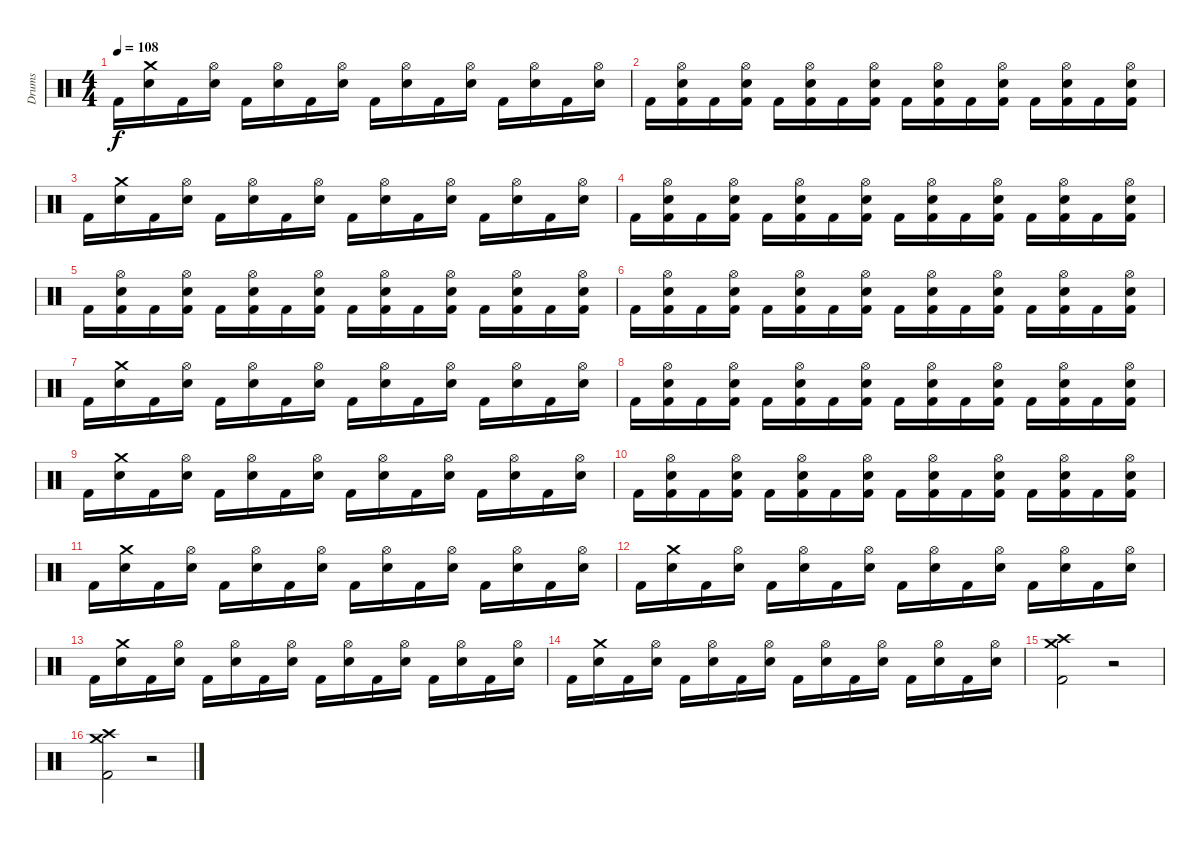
\track ("Drums" "Drums") {instrument percussion}
\staff {score}
\articulation defaults
\ts (4 4)
\tempo 108
\clef neutral
\ks c "Kick (hit) 2".16{dy f}
("Crash medium (hit)" "Snare (hit) 2").16 "Kick (hit) 2".16 ("Hi-Hat (open)" "Snare (hit) 2").16 "Kick (hit) 2".16 ("Hi-Hat (open)" "Snare (hit) 2").16 "Kick (hit) 2".16 ("Hi-Hat (open)" "Snare (hit) 2").16 "Kick (hit) 2".16 ("Hi-Hat (open)" "Snare (hit) 2").16 "Kick (hit) 2".16 ("Hi-Hat (open)" "Snare (hit) 2").16 "Kick (hit) 2".16 ("Hi-Hat (open)" "Snare (hit) 2").16 "Kick (hit) 2".16 ("Hi-Hat (open)" "Snare (hit) 2").16 |
"Kick (hit) 2".16 ("Hi-Hat (open)" "Snare (hit) 2" "Kick (hit) 2").16 "Kick (hit) 2".16 ("Hi-Hat (open)" "Snare (hit) 2" "Kick (hit) 2").16 "Kick (hit) 2".16 ("Hi-Hat (open)" "Snare (hit) 2" "Kick (hit) 2").16 "Kick (hit) 2".16 ("Hi-Hat (open)" "Snare (hit) 2" "Kick (hit) 2").16 "Kick (hit) 2".16 ("Hi-Hat (open)" "Snare (hit) 2" "Kick (hit) 2").16 "Kick (hit) 2".16 ("Hi-Hat (open)" "Snare (hit) 2" "Kick (hit) 2").16 "Kick (hit) 2".16 ("Hi-Hat (open)" "Snare (hit) 2" "Kick (hit) 2").16 "Kick (hit) 2".16 ("Hi-Hat (open)" "Snare (hit) 2" "Kick (hit) 2").16 |
"Kick (hit) 2".16 ("Crash medium (hit)" "Snare (hit) 2").16 "Kick (hit) 2".16 ("Hi-Hat (open)" "Snare (hit) 2").16 "Kick (hit) 2".16 ("Hi-Hat (open)" "Snare (hit) 2").16 "Kick (hit) 2".16 ("Hi-Hat (open)" "Snare (hit) 2").16 "Kick (hit) 2".16 ("Hi-Hat (open)" "Snare (hit) 2").16 "Kick (hit) 2".16 ("Hi-Hat (open)" "Snare (hit) 2").16 "Kick (hit) 2".16 ("Hi-Hat (open)" "Snare (hit) 2").16 "Kick (hit) 2".16 ("Hi-Hat (open)" "Snare (hit) 2").16 |
"Kick (hit) 2".16 ("Hi-Hat (open)" "Snare (hit) 2" "Kick (hit) 2").16 "Kick (hit) 2".16 ("Hi-Hat (open)" "Snare (hit) 2" "Kick (hit) 2").16 "Kick (hit) 2".16 ("Hi-Hat (open)" "Snare (hit) 2" "Kick (hit) 2").16 "Kick (hit) 2".16 ("Hi-Hat (open)" "Snare (hit) 2" "Kick (hit) 2").16 "Kick (hit) 2".16 ("Hi-Hat (open)" "Snare (hit) 2" "Kick (hit) 2").16 "Kick (hit) 2".16 ("Hi-Hat (open)" "Snare (hit) 2" "Kick (hit) 2").16 "Kick (hit) 2".16 ("Hi-Hat (open)" "Snare (hit) 2" "Kick (hit) 2").16 "Kick (hit) 2".16 ("Hi-Hat (open)" "Snare (hit) 2" "Kick (hit) 2").16 |
"Kick (hit) 2".16 ("Hi-Hat (open)" "Snare (hit) 2" "Kick (hit) 2").16 "Kick (hit) 2".16 ("Hi-Hat (open)" "Snare (hit) 2" "Kick (hit) 2").16 "Kick (hit) 2".16 ("Hi-Hat (open)" "Snare (hit) 2" "Kick (hit) 2").16 "Kick (hit) 2".16 ("Hi-Hat (open)" "Snare (hit) 2" "Kick (hit) 2").16 "Kick (hit) 2".16 ("Hi-Hat (open)" "Snare (hit) 2" "Kick (hit) 2").16 "Kick (hit) 2".16 ("Hi-Hat (open)" "Snare (hit) 2" "Kick (hit) 2").16 "Kick (hit) 2".16 ("Hi-Hat (open)" "Snare (hit) 2" "Kick (hit) 2").16 "Kick (hit) 2".16 ("Hi-Hat (open)" "Snare (hit) 2" "Kick (hit) 2").16 |
"Kick (hit) 2".16 ("Hi-Hat (open)" "Snare (hit) 2" "Kick (hit) 2").16 "Kick (hit) 2".16 ("Hi-Hat (open)" "Snare (hit) 2" "Kick (hit) 2").16 "Kick (hit) 2".16 ("Hi-Hat (open)" "Snare (hit) 2" "Kick (hit) 2").16 "Kick (hit) 2".16 ("Hi-Hat (open)" "Snare (hit) 2" "Kick (hit) 2").16 "Kick (hit) 2".16 ("Hi-Hat (open)" "Snare (hit) 2" "Kick (hit) 2").16 "Kick (hit) 2".16 ("Hi-Hat (open)" "Snare (hit) 2" "Kick (hit) 2").16 "Kick (hit) 2".16 ("Hi-Hat (open)" "Snare (hit) 2" "Kick (hit) 2").16 "Kick (hit) 2".16 ("Hi-Hat (open)" "Snare (hit) 2" "Kick (hit) 2").16 |
"Kick (hit) 2".16 ("Crash medium (hit)" "Snare (hit) 2").16 "Kick (hit) 2".16 ("Hi-Hat (open)" "Snare (hit) 2").16 "Kick (hit) 2".16 ("Hi-Hat (open)" "Snare (hit) 2").16 "Kick (hit) 2".16 ("Hi-Hat (open)" "Snare (hit) 2").16 "Kick (hit) 2".16 ("Hi-Hat (open)" "Snare (hit) 2").16 "Kick (hit) 2".16 ("Hi-Hat (open)" "Snare (hit) 2").16 "Kick (hit) 2".16 ("Hi-Hat (open)" "Snare (hit) 2").16 "Kick (hit) 2".16 ("Hi-Hat (open)" "Snare (hit) 2").16 |
"Kick (hit) 2".16 ("Hi-Hat (open)" "Snare (hit) 2" "Kick (hit) 2").16 "Kick (hit) 2".16 ("Hi-Hat (open)" "Snare (hit) 2" "Kick (hit) 2").16 "Kick (hit) 2".16 ("Hi-Hat (open)" "Snare (hit) 2" "Kick (hit) 2").16 "Kick (hit) 2".16 ("Hi-Hat (open)" "Snare (hit) 2" "Kick (hit) 2").16 "Kick (hit) 2".16 ("Hi-Hat (open)" "Snare (hit) 2" "Kick (hit) 2").16 "Kick (hit) 2".16 ("Hi-Hat (open)" "Snare (hit) 2" "Kick (hit) 2").16 "Kick (hit) 2".16 ("Hi-Hat (open)" "Snare (hit) 2" "Kick (hit) 2").16 "Kick (hit) 2".16 ("Hi-Hat (open)" "Snare (hit) 2" "Kick (hit) 2").16 |
"Kick (hit) 2".16 ("Crash medium (hit)" "Snare (hit) 2").16 "Kick (hit) 2".16 ("Hi-Hat (open)" "Snare (hit) 2").16 "Kick (hit) 2".16 ("Hi-Hat (open)" "Snare (hit) 2").16 "Kick (hit) 2".16 ("Hi-Hat (open)" "Snare (hit) 2").16 "Kick (hit) 2".16 ("Hi-Hat (open)" "Snare (hit) 2").16 "Kick (hit) 2".16 ("Hi-Hat (open)" "Snare (hit) 2").16 "Kick (hit) 2".16 ("Hi-Hat (open)" "Snare (hit) 2").16 "Kick (hit) 2".16 ("Hi-Hat (open)" "Snare (hit) 2").16 |
"Kick (hit) 2".16 ("Hi-Hat (open)" "Snare (hit) 2" "Kick (hit) 2").16 "Kick (hit) 2".16 ("Hi-Hat (open)" "Snare (hit) 2" "Kick (hit) 2").16 "Kick (hit) 2".16 ("Hi-Hat (open)" "Snare (hit) 2" "Kick (hit) 2").16 "Kick (hit) 2".16 ("Hi-Hat (open)" "Snare (hit) 2" "Kick (hit) 2").16 "Kick (hit) 2".16 ("Hi-Hat (open)" "Snare (hit) 2" "Kick (hit) 2").16 "Kick (hit) 2".16 ("Hi-Hat (open)" "Snare (hit) 2" "Kick (hit) 2").16 "Kick (hit) 2".16 ("Hi-Hat (open)" "Snare (hit) 2" "Kick (hit) 2").16 "Kick (hit) 2".16 ("Hi-Hat (open)" "Snare (hit) 2" "Kick (hit) 2").16 |
"Kick (hit) 2".16 ("Crash medium (hit)" "Snare (hit) 2").16 "Kick (hit) 2".16 ("Hi-Hat (open)" "Snare (hit) 2").16 "Kick (hit) 2".16 ("Hi-Hat (open)" "Snare (hit) 2").16 "Kick (hit) 2".16 ("Hi-Hat (open)" "Snare (hit) 2").16 "Kick (hit) 2".16 ("Hi-Hat (open)" "Snare (hit) 2").16 "Kick (hit) 2".16 ("Hi-Hat (open)" "Snare (hit) 2").16 "Kick (hit) 2".16 ("Hi-Hat (open)" "Snare (hit) 2").16 "Kick (hit) 2".16 ("Hi-Hat (open)" "Snare (hit) 2").16 |
"Kick (hit) 2".16 ("Crash medium (hit)" "Snare (hit) 2").16 "Kick (hit) 2".16 ("Hi-Hat (open)" "Snare (hit) 2").16 "Kick (hit) 2".16 ("Hi-Hat (open)" "Snare (hit) 2").16 "Kick (hit) 2".16 ("Hi-Hat (open)" "Snare (hit) 2").16 "Kick (hit) 2".16 ("Hi-Hat (open)" "Snare (hit) 2").16 "Kick (hit) 2".16 ("Hi-Hat (open)" "Snare (hit) 2").16 "Kick (hit) 2".16 ("Hi-Hat (open)" "Snare (hit) 2").16 "Kick (hit) 2".16 ("Hi-Hat (open)" "Snare (hit) 2").16 |
"Kick (hit) 2".16 ("Crash medium (hit)" "Snare (hit) 2").16 "Kick (hit) 2".16 ("Hi-Hat (open)" "Snare (hit) 2").16 "Kick (hit) 2".16 ("Hi-Hat (open)" "Snare (hit) 2").16 "Kick (hit) 2".16 ("Hi-Hat (open)" "Snare (hit) 2").16 "Kick (hit) 2".16 ("Hi-Hat (open)" "Snare (hit) 2").16 "Kick (hit) 2".16 ("Hi-Hat (open)" "Snare (hit) 2").16 "Kick (hit) 2".16 ("Hi-Hat (open)" "Snare (hit) 2").16 "Kick (hit) 2".16 ("Hi-Hat (open)" "Snare (hit) 2").16 |
"Kick (hit) 2".16 ("Crash medium (hit)" "Snare (hit) 2").16 "Kick (hit) 2".16 ("Hi-Hat (open)" "Snare (hit) 2").16 "Kick (hit) 2".16 ("Hi-Hat (open)" "Snare (hit) 2").16 "Kick (hit) 2".16 ("Hi-Hat (open)" "Snare (hit) 2").16 "Kick (hit) 2".16 ("Hi-Hat (open)" "Snare (hit) 2").16 "Kick (hit) 2".16 ("Hi-Hat (open)" "Snare (hit) 2").16 "Kick (hit) 2".16 ("Hi-Hat (open)" "Snare (hit) 2").16 "Kick (hit) 2".16 ("Hi-Hat (open)" "Snare (hit) 2").16 |
("Crash medium (hit)" "Crash high (hit)" "Kick (hit) 2").2 r.2 |
("Crash medium (hit)" "Crash high (hit)" "Kick (hit) 2").2 r.2
